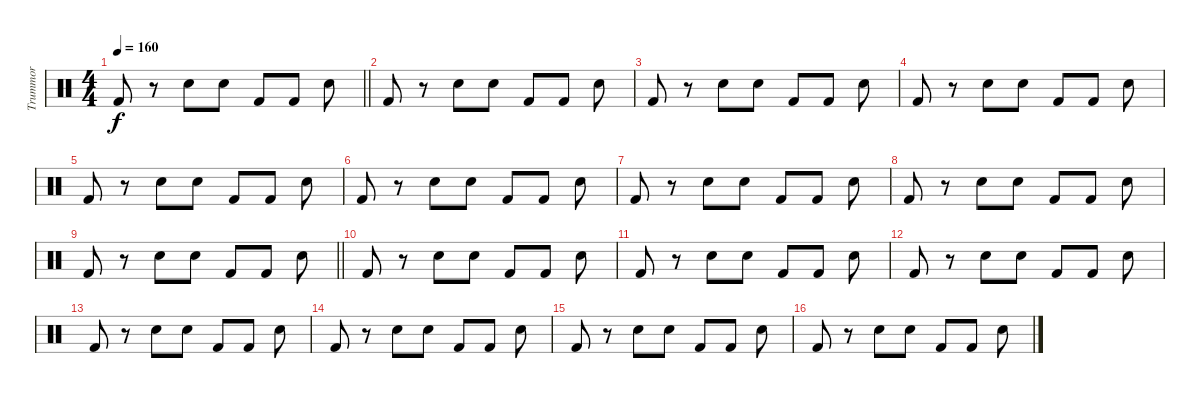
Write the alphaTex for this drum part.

\track ("Trummor" "Trummor") {instrument percussion}
\staff {score}
\articulation defaults
\ts (4 4)
\tempo 160
\clef neutral
\barLineRight lightlight
\ks c "Kick (hit) 2".8{dy f}
r.8 "Snare (hit) 2".8 "Snare (hit) 2".8 "Kick (hit) 2".8 "Kick (hit) 2".8 "Snare (hit) 2".8 |
"Kick (hit) 2".8 r.8 "Snare (hit) 2".8 "Snare (hit) 2".8 "Kick (hit) 2".8 "Kick (hit) 2".8 "Snare (hit) 2".8 |
"Kick (hit) 2".8 r.8 "Snare (hit) 2".8 "Snare (hit) 2".8 "Kick (hit) 2".8 "Kick (hit) 2".8 "Snare (hit) 2".8 |
"Kick (hit) 2".8 r.8 "Snare (hit) 2".8 "Snare (hit) 2".8 "Kick (hit) 2".8 "Kick (hit) 2".8 "Snare (hit) 2".8 |
"Kick (hit) 2".8 r.8 "Snare (hit) 2".8 "Snare (hit) 2".8 "Kick (hit) 2".8 "Kick (hit) 2".8 "Snare (hit) 2".8 |
"Kick (hit) 2".8 r.8 "Snare (hit) 2".8 "Snare (hit) 2".8 "Kick (hit) 2".8 "Kick (hit) 2".8 "Snare (hit) 2".8 |
"Kick (hit) 2".8 r.8 "Snare (hit) 2".8 "Snare (hit) 2".8 "Kick (hit) 2".8 "Kick (hit) 2".8 "Snare (hit) 2".8 |
"Kick (hit) 2".8 r.8 "Snare (hit) 2".8 "Snare (hit) 2".8 "Kick (hit) 2".8 "Kick (hit) 2".8 "Snare (hit) 2".8 |
\barLineRight lightlight "Kick (hit) 2".8
r.8 "Snare (hit) 2".8 "Snare (hit) 2".8 "Kick (hit) 2".8 "Kick (hit) 2".8 "Snare (hit) 2".8 |
"Kick (hit) 2".8 r.8 "Snare (hit) 2".8 "Snare (hit) 2".8 "Kick (hit) 2".8 "Kick (hit) 2".8 "Snare (hit) 2".8 |
"Kick (hit) 2".8 r.8 "Snare (hit) 2".8 "Snare (hit) 2".8 "Kick (hit) 2".8 "Kick (hit) 2".8 "Snare (hit) 2".8 |
"Kick (hit) 2".8 r.8 "Snare (hit) 2".8 "Snare (hit) 2".8 "Kick (hit) 2".8 "Kick (hit) 2".8 "Snare (hit) 2".8 |
"Kick (hit) 2".8 r.8 "Snare (hit) 2".8 "Snare (hit) 2".8 "Kick (hit) 2".8 "Kick (hit) 2".8 "Snare (hit) 2".8 |
"Kick (hit) 2".8 r.8 "Snare (hit) 2".8 "Snare (hit) 2".8 "Kick (hit) 2".8 "Kick (hit) 2".8 "Snare (hit) 2".8 |
"Kick (hit) 2".8 r.8 "Snare (hit) 2".8 "Snare (hit) 2".8 "Kick (hit) 2".8 "Kick (hit) 2".8 "Snare (hit) 2".8 |
"Kick (hit) 2".8 r.8 "Snare (hit) 2".8 "Snare (hit) 2".8 "Kick (hit) 2".8 "Kick (hit) 2".8 "Snare (hit) 2".8
